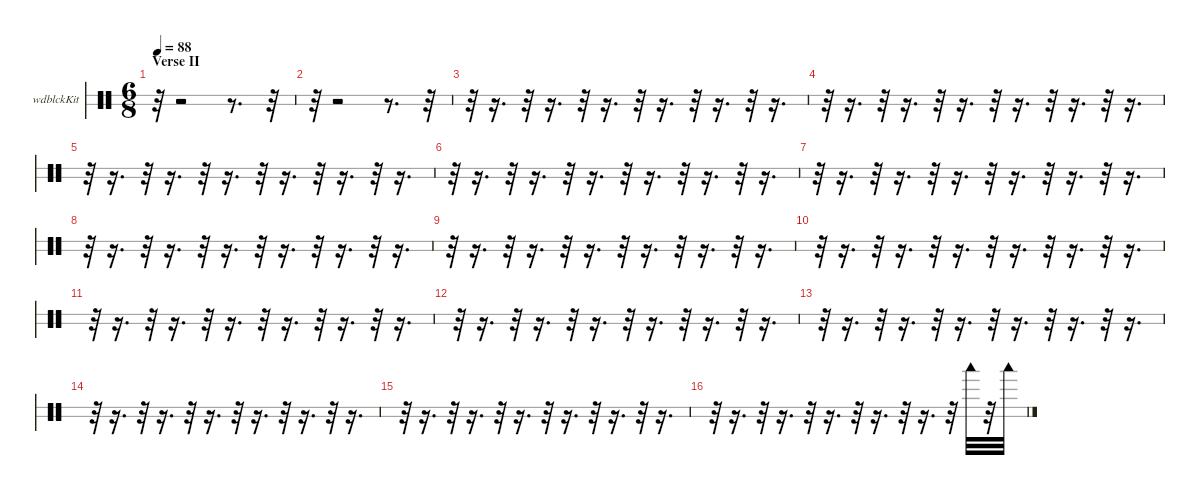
\hideDynamics
\bracketExtendMode nobrackets
\firstSystemTrackNameOrientation horizontal
\otherSystemsTrackNameOrientation horizontal
\track ("Woodblock" "wdblckKit") {instrument percussion}
\staff {score 2}
\articulation defaults
\ts (6 8)
\section ("" "Verse II")
\tempo 88
\clef neutral
\ks c
r.32{dy f} r.2 r.8{d} r.32 |
r.32 r.2 r.8{d} r.32 |
r.32 r.16{d} r.32 r.16{d} r.32 r.16{d} r.32 r.16{d} r.32 r.16{d} r.32 r.16{d} |
r.32 r.16{d} r.32 r.16{d} r.32 r.16{d} r.32 r.16{d} r.32 r.16{d} r.32 r.16{d} |
r.32 r.16{d} r.32 r.16{d} r.32 r.16{d} r.32 r.16{d} r.32 r.16{d} r.32 r.16{d} |
r.32 r.16{d} r.32 r.16{d} r.32 r.16{d} r.32 r.16{d} r.32 r.16{d} r.32 r.16{d} |
r.32 r.16{d} r.32 r.16{d} r.32 r.16{d} r.32 r.16{d} r.32 r.16{d} r.32 r.16{d} |
r.32 r.16{d} r.32 r.16{d} r.32 r.16{d} r.32 r.16{d} r.32 r.16{d} r.32 r.16{d} |
r.32 r.16{d} r.32 r.16{d} r.32 r.16{d} r.32 r.16{d} r.32 r.16{d} r.32 r.16{d} |
r.32 r.16{d} r.32 r.16{d} r.32 r.16{d} r.32 r.16{d} r.32 r.16{d} r.32 r.16{d} |
r.32 r.16{d} r.32 r.16{d} r.32 r.16{d} r.32 r.16{d} r.32 r.16{d} r.32 r.16{d} |
r.32 r.16{d} r.32 r.16{d} r.32 r.16{d} r.32 r.16{d} r.32 r.16{d} r.32 r.16{d} |
r.32 r.16{d} r.32 r.16{d} r.32 r.16{d} r.32 r.16{d} r.32 r.16{d} r.32 r.16{d} |
r.32 r.16{d} r.32 r.16{d} r.32 r.16{d} r.32 r.16{d} r.32 r.16{d} r.32 r.16{d} |
r.32 r.16{d} r.32 r.16{d} r.32 r.16{d} r.32 r.16{d} r.32 r.16{d} r.32 r.16{d} |
r.32 r.16{d} r.32 r.16{d} r.32 r.16{d} r.32 r.16{d} r.32 r.16{d} r.32 "Woodblock low (hit)".32{dy mf} r.32 "Woodblock low (hit)".32{dy f}
